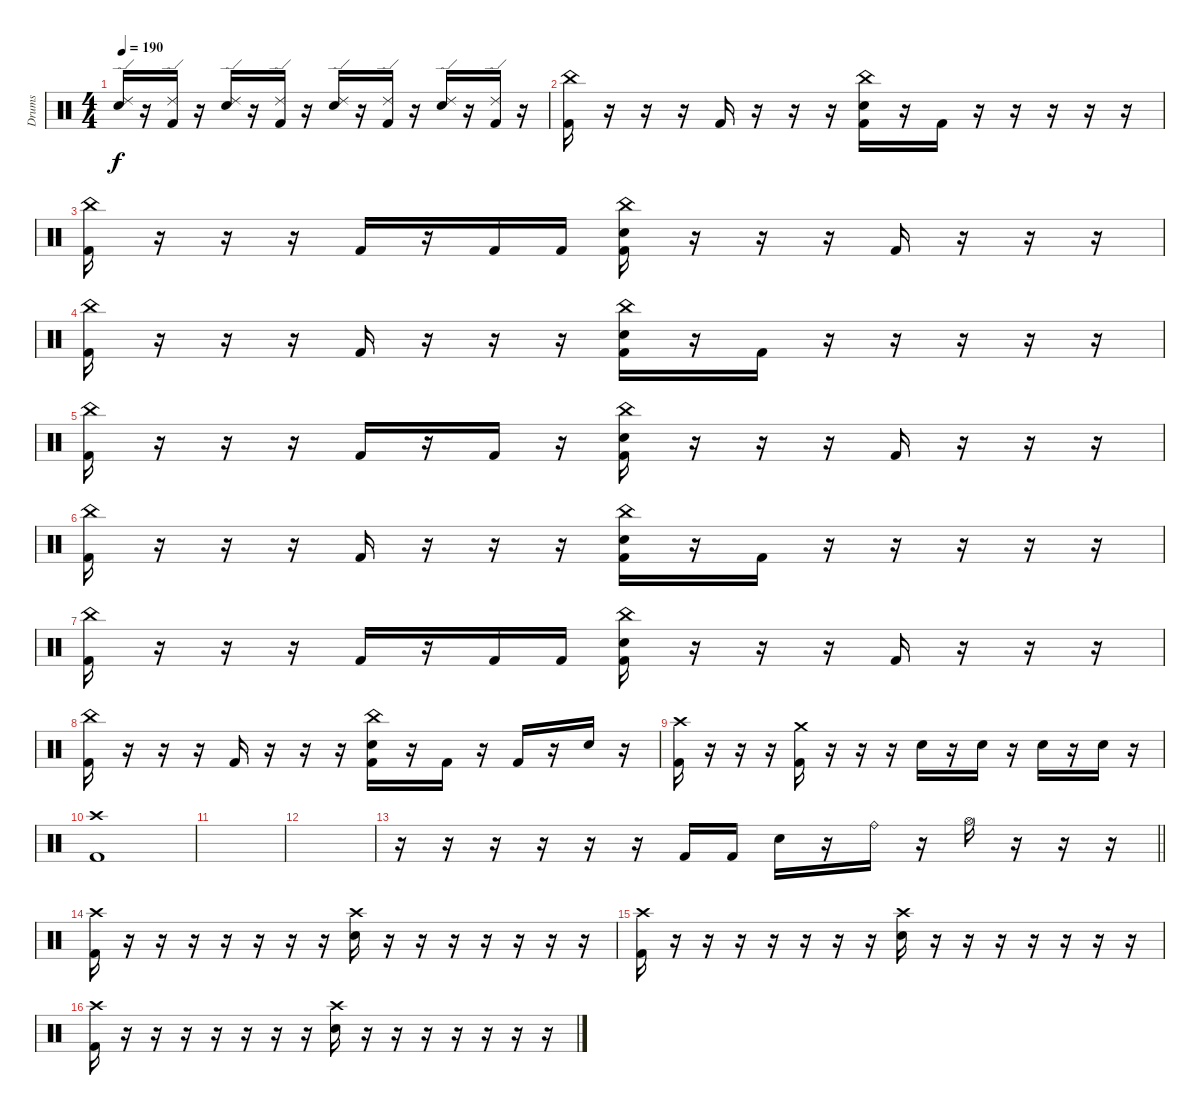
\track ("Drums" "Drums") {instrument percussion}
\staff {score}
\articulation defaults
\ts (4 4)
\tempo 190
\clef neutral
\ks c
("Ride (edge) 2" "Electric Snare (hit)").16{dy f} r.16 ("Ride (edge) 2" "Kick (hit) 2").16 r.16 ("Ride (edge) 2" "Electric Snare (hit)").16 r.16 ("Ride (edge) 2" "Kick (hit) 2").16 r.16 ("Ride (edge) 2" "Electric Snare (hit)").16 r.16 ("Ride (edge) 2" "Kick (hit) 2").16 r.16 ("Ride (edge) 2" "Electric Snare (hit)").16 r.16 ("Ride (edge) 2" "Kick (hit) 2").16 r.16 |
("China (hit)" "Kick (hit) 2").16 r.16 r.16 r.16 "Kick (hit) 2".16 r.16 r.16 r.16 ("China (hit)" "Electric Snare (hit)" "Kick (hit) 2").16 r.16 "Kick (hit) 2".16 r.16 r.16 r.16 r.16 r.16 |
("China (hit)" "Kick (hit) 2").16 r.16 r.16 r.16 "Kick (hit) 2".16 r.16 "Kick (hit) 2".16 "Kick (hit) 2".16 ("China (hit)" "Electric Snare (hit)" "Kick (hit) 2").16 r.16 r.16 r.16 "Kick (hit) 2".16 r.16 r.16 r.16 |
("China (hit)" "Kick (hit) 2").16 r.16 r.16 r.16 "Kick (hit) 2".16 r.16 r.16 r.16 ("China (hit)" "Electric Snare (hit)" "Kick (hit) 2").16 r.16 "Kick (hit) 2".16 r.16 r.16 r.16 r.16 r.16 |
("China (hit)" "Kick (hit) 2").16 r.16 r.16 r.16 "Kick (hit) 2".16 r.16 "Kick (hit) 2".16 r.16 ("China (hit)" "Electric Snare (hit)" "Kick (hit) 2").16 r.16 r.16 r.16 "Kick (hit) 2".16 r.16 r.16 r.16 |
("China (hit)" "Kick (hit) 2").16 r.16 r.16 r.16 "Kick (hit) 2".16 r.16 r.16 r.16 ("China (hit)" "Electric Snare (hit)" "Kick (hit) 2").16 r.16 "Kick (hit) 2".16 r.16 r.16 r.16 r.16 r.16 |
("China (hit)" "Kick (hit) 2").16 r.16 r.16 r.16 "Kick (hit) 2".16 r.16 "Kick (hit) 2".16 "Kick (hit) 2".16 ("China (hit)" "Electric Snare (hit)" "Kick (hit) 2").16 r.16 r.16 r.16 "Kick (hit) 2".16 r.16 r.16 r.16 |
("China (hit)" "Kick (hit) 2").16 r.16 r.16 r.16 "Kick (hit) 2".16 r.16 r.16 r.16 ("China (hit)" "Electric Snare (hit)" "Kick (hit) 2").16 r.16 "Kick (hit) 2".16 r.16 "Kick (hit) 2".16 r.16 "Electric Snare (hit)".16 r.16 |
("Crash high (hit)" "Kick (hit) 2").16 r.16 r.16 r.16 ("Crash medium (hit)" "Kick (hit) 2").16 r.16 r.16 r.16 "Electric Snare (hit)".16 r.16 "Electric Snare (hit)".16 r.16 "Electric Snare (hit)".16 r.16 "Electric Snare (hit)".16 r.16 |
("Crash high (hit)" "Kick (hit) 2").1 |
|
|
\barLineRight lightlight
r.16 r.16 r.16 r.16 r.16 r.16 "Kick (hit) 2".16 "Kick (hit) 2".16 "Electric Snare (hit)".16 r.16 "Ride (bell)".16 r.16 "Hi-Hat (open)".16 r.16 r.16 r.16 |
("Crash high (hit)" "Kick (hit) 2").16 r.16 r.16 r.16 r.16 r.16 r.16 r.16 ("Crash high (hit)" "Electric Snare (hit)").16 r.16 r.16 r.16 r.16 r.16 r.16 r.16 |
("Crash high (hit)" "Kick (hit) 2").16 r.16 r.16 r.16 r.16 r.16 r.16 r.16 ("Crash high (hit)" "Electric Snare (hit)").16 r.16 r.16 r.16 r.16 r.16 r.16 r.16 |
("Crash high (hit)" "Kick (hit) 2").16 r.16 r.16 r.16 r.16 r.16 r.16 r.16 ("Crash high (hit)" "Electric Snare (hit)").16 r.16 r.16 r.16 r.16 r.16 r.16 r.16
